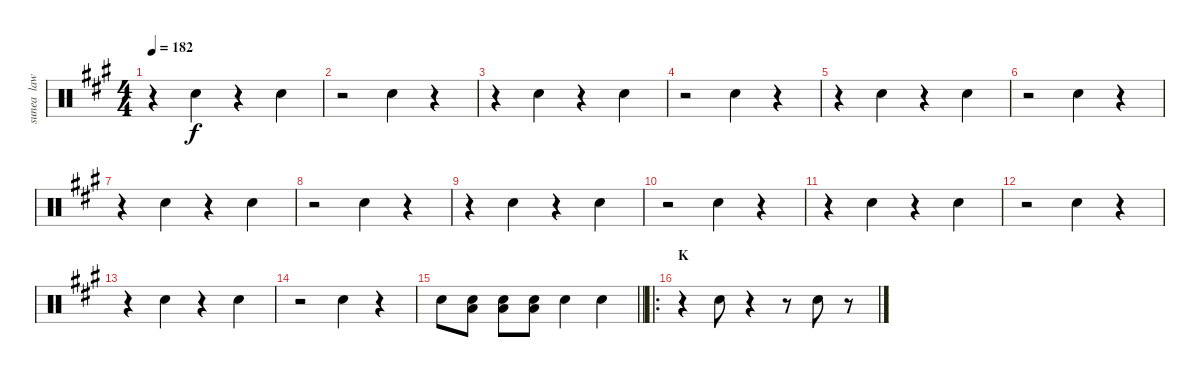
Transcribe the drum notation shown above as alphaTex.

\track ("sunea  law tam" "sunea  law") {instrument percussion}
\staff {score}
\articulation defaults
\ts (4 4)
\tempo 182
\clef neutral
\ks f#minor
r.4{dy f} "Snare (hit) 2".4 r.4 "Snare (hit) 2".4 |
r.2 "Snare (hit) 2".4 r.4 |
r.4 "Snare (hit) 2".4 r.4 "Snare (hit) 2".4 |
r.2 "Snare (hit) 2".4 r.4 |
r.4 "Snare (hit) 2".4 r.4 "Snare (hit) 2".4 |
r.2 "Snare (hit) 2".4 r.4 |
r.4 "Snare (hit) 2".4 r.4 "Snare (hit) 2".4 |
r.2 "Snare (hit) 2".4 r.4 |
r.4 "Snare (hit) 2".4 r.4 "Snare (hit) 2".4 |
r.2 "Snare (hit) 2".4 r.4 |
r.4 "Snare (hit) 2".4 r.4 "Snare (hit) 2".4 |
r.2 "Snare (hit) 2".4 r.4 |
r.4 "Snare (hit) 2".4 r.4 "Snare (hit) 2".4 |
r.2 "Snare (hit) 2".4 r.4 |
\barLineRight lightlight "Snare (hit) 2".8
("Snare (hit) 2" "Low Tom (hit)").8 ("Snare (hit) 2" "Low Tom (hit)").8 ("Snare (hit) 2" "Low Tom (hit)").8 "Snare (hit) 2".4 "Snare (hit) 2".4 |
\ro
\section ("" "K")
r.4 "Snare (hit) 2".8 r.4 r.8 "Snare (hit) 2".8 r.8
